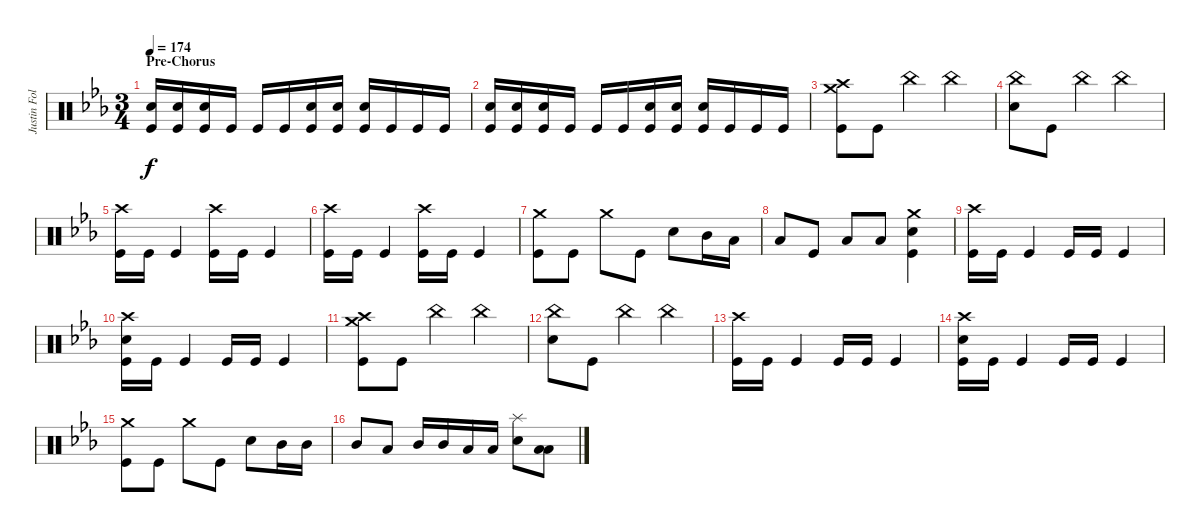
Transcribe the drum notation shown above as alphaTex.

\track ("Justin Foley" "Justin Fol") {instrument percussion}
\staff {score}
\articulation defaults
\ts (3 4)
\section ("" "Pre-Chorus")
\tempo 174
\clef neutral
\ks cminor
("Snare (hit) 2" "Kick (hit)").16{dy f} ("Snare (hit) 2" "Kick (hit)").16 ("Snare (hit) 2" "Kick (hit)").16 "Kick (hit)".16 "Kick (hit)".16 "Kick (hit)".16 ("Snare (hit) 2" "Kick (hit)").16 ("Snare (hit) 2" "Kick (hit)").16 ("Snare (hit) 2" "Kick (hit)").16 "Kick (hit)".16 "Kick (hit)".16 "Kick (hit)".16 |
("Snare (hit) 2" "Kick (hit)").16 ("Snare (hit) 2" "Kick (hit)").16 ("Snare (hit) 2" "Kick (hit)").16 "Kick (hit)".16 "Kick (hit)".16 "Kick (hit)".16 ("Snare (hit) 2" "Kick (hit)").16 ("Snare (hit) 2" "Kick (hit)").16 ("Snare (hit) 2" "Kick (hit)").16 "Kick (hit)".16 "Kick (hit)".16 "Kick (hit)".16 |
("Crash medium (hit)" "Kick (hit)" "Crash high (hit)").8 "Kick (hit)".8 "China (hit)".4 "China (hit)".4 |
("Snare (hit) 2" "China (hit)").8 "Kick (hit)".8 "China (hit)".4 "China (hit)".4 |
("Crash high (hit)" "Kick (hit)").16 "Kick (hit)".16 "Kick (hit)".4 ("Crash high (hit)" "Kick (hit)").16 "Kick (hit)".16 "Kick (hit)".4 |
("Crash high (hit)" "Kick (hit)").16 "Kick (hit)".16 "Kick (hit)".4 ("Crash high (hit)" "Kick (hit)").16 "Kick (hit)".16 "Kick (hit)".4 |
("Crash medium (hit)" "Kick (hit)").8 "Kick (hit)".8 "Crash medium (hit)".8 "Kick (hit)".8 "Snare (hit) 2".8 "Mid Tom (hit)".16 "Low Tom (hit)".16 |
"Low Floor Tom (hit)".8 "Kick (hit)".8 "Low Tom (hit)".8 "Low Floor Tom (hit)".8 ("Crash medium (hit)" "Snare (hit) 2" "Kick (hit)").4 |
("Crash high (hit)" "Kick (hit)").16 "Kick (hit)".16 "Kick (hit)".4 "Kick (hit)".16 "Kick (hit)".16 "Kick (hit)".4 |
("Crash high (hit)" "Snare (hit) 2" "Kick (hit)").16 "Kick (hit)".16 "Kick (hit)".4 "Kick (hit)".16 "Kick (hit)".16 "Kick (hit)".4 |
("Crash medium (hit)" "Kick (hit)" "Crash high (hit)").8 "Kick (hit)".8 "China (hit)".4 "China (hit)".4 |
("Snare (hit) 2" "China (hit)").8 "Kick (hit)".8 "China (hit)".4 "China (hit)".4 |
("Crash high (hit)" "Kick (hit)").16 "Kick (hit)".16 "Kick (hit)".4 "Kick (hit)".16 "Kick (hit)".16 "Kick (hit)".4 |
("Crash high (hit)" "Snare (hit) 2" "Kick (hit)").16 "Kick (hit)".16 "Kick (hit)".4 "Kick (hit)".16 "Kick (hit)".16 "Kick (hit)".4 |
("Crash medium (hit)" "Kick (hit)").8 "Kick (hit)".8 "Crash medium (hit)".8 "Kick (hit)".8 "Snare (hit) 2".8 "Mid Tom (hit)".16 "Mid Tom (hit)".16 |
"Mid Tom (hit)".8 "Low Tom (hit)".8 "Mid Tom (hit)".16 "Mid Tom (hit)".16 "Low Tom (hit)".16 "Low Floor Tom (hit)".16 ("Snare (hit) 2" "Splash (hit)").8 ("Low Floor Tom (hit)" "Low Tom (hit)").8
